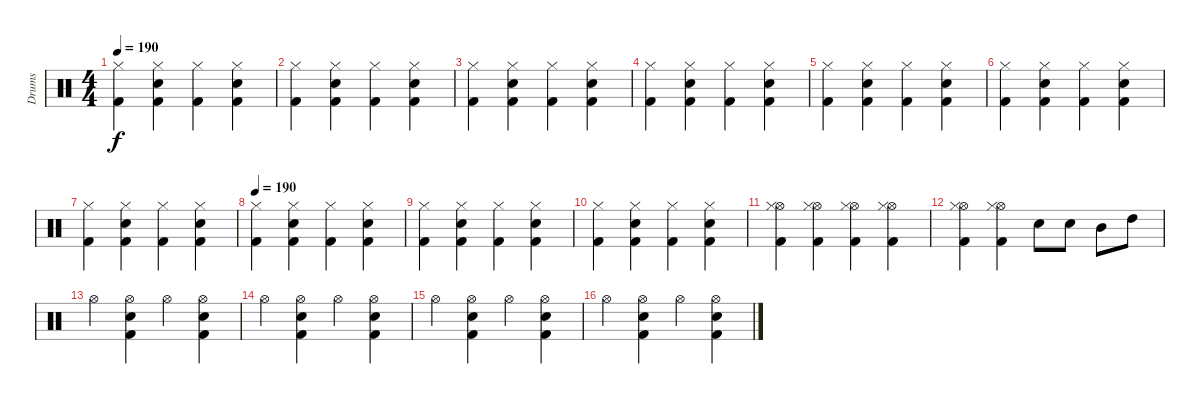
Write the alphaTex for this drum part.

\track ("Drums" "Drums") {instrument percussion}
\staff {score}
\articulation defaults
\ts (4 4)
\tempo 190
\clef neutral
\ks c
("Hi-Hat (closed)" "Kick (hit) 2").4{dy f} ("Hi-Hat (closed)" "Snare (hit) 2" "Kick (hit) 2").4 ("Hi-Hat (closed)" "Kick (hit) 2").4 ("Hi-Hat (closed)" "Snare (hit) 2" "Kick (hit) 2").4 |
("Hi-Hat (closed)" "Kick (hit) 2").4 ("Hi-Hat (closed)" "Snare (hit) 2" "Kick (hit) 2").4 ("Hi-Hat (closed)" "Kick (hit) 2").4 ("Hi-Hat (closed)" "Snare (hit) 2" "Kick (hit) 2").4 |
("Hi-Hat (closed)" "Kick (hit) 2").4 ("Hi-Hat (closed)" "Snare (hit) 2" "Kick (hit) 2").4 ("Hi-Hat (closed)" "Kick (hit) 2").4 ("Hi-Hat (closed)" "Snare (hit) 2" "Kick (hit) 2").4 |
("Hi-Hat (closed)" "Kick (hit) 2").4 ("Hi-Hat (closed)" "Snare (hit) 2" "Kick (hit) 2").4 ("Hi-Hat (closed)" "Kick (hit) 2").4 ("Hi-Hat (closed)" "Snare (hit) 2" "Kick (hit) 2").4 |
("Hi-Hat (closed)" "Kick (hit) 2").4 ("Hi-Hat (closed)" "Snare (hit) 2" "Kick (hit) 2").4 ("Hi-Hat (closed)" "Kick (hit) 2").4 ("Hi-Hat (closed)" "Snare (hit) 2" "Kick (hit) 2").4 |
("Hi-Hat (closed)" "Kick (hit) 2").4 ("Hi-Hat (closed)" "Snare (hit) 2" "Kick (hit) 2").4 ("Hi-Hat (closed)" "Kick (hit) 2").4 ("Hi-Hat (closed)" "Snare (hit) 2" "Kick (hit) 2").4 |
("Hi-Hat (closed)" "Kick (hit) 2").4 ("Hi-Hat (closed)" "Snare (hit) 2" "Kick (hit) 2").4 ("Hi-Hat (closed)" "Kick (hit) 2").4 ("Hi-Hat (closed)" "Snare (hit) 2" "Kick (hit) 2").4 |
\tempo 190
("Hi-Hat (closed)" "Kick (hit) 2").4 ("Hi-Hat (closed)" "Snare (hit) 2" "Kick (hit) 2").4 ("Hi-Hat (closed)" "Kick (hit) 2").4 ("Hi-Hat (closed)" "Snare (hit) 2" "Kick (hit) 2").4 |
("Hi-Hat (closed)" "Kick (hit) 2").4 ("Hi-Hat (closed)" "Snare (hit) 2" "Kick (hit) 2").4 ("Hi-Hat (closed)" "Kick (hit) 2").4 ("Hi-Hat (closed)" "Snare (hit) 2" "Kick (hit) 2").4 |
("Hi-Hat (closed)" "Kick (hit) 2").4 ("Hi-Hat (closed)" "Snare (hit) 2" "Kick (hit) 2").4 ("Hi-Hat (closed)" "Kick (hit) 2").4 ("Hi-Hat (closed)" "Snare (hit) 2" "Kick (hit) 2").4 |
("Hi-Hat (open)" "Hi-Hat (closed)" "Kick (hit) 2").4 ("Hi-Hat (open)" "Hi-Hat (closed)" "Kick (hit) 2").4 ("Hi-Hat (open)" "Hi-Hat (closed)" "Kick (hit) 2").4 ("Hi-Hat (open)" "Hi-Hat (closed)" "Kick (hit) 2").4 |
("Hi-Hat (open)" "Hi-Hat (closed)" "Kick (hit) 2").4 ("Hi-Hat (open)" "Hi-Hat (closed)" "Kick (hit) 2").4 "Snare (hit) 2".8 "Snare (hit) 2".8 "Mid Tom (hit)".8 "High Tom (hit)".8 |
"Hi-Hat (open)".4 ("Hi-Hat (open)" "Snare (hit) 2" "Kick (hit) 2").4 "Hi-Hat (open)".4 ("Hi-Hat (open)" "Snare (hit) 2" "Kick (hit) 2").4 |
"Hi-Hat (open)".4 ("Hi-Hat (open)" "Snare (hit) 2" "Kick (hit) 2").4 "Hi-Hat (open)".4 ("Hi-Hat (open)" "Snare (hit) 2" "Kick (hit) 2").4 |
"Hi-Hat (open)".4 ("Hi-Hat (open)" "Snare (hit) 2" "Kick (hit) 2").4 "Hi-Hat (open)".4 ("Hi-Hat (open)" "Snare (hit) 2" "Kick (hit) 2").4 |
"Hi-Hat (open)".4 ("Hi-Hat (open)" "Snare (hit) 2" "Kick (hit) 2").4 "Hi-Hat (open)".4 ("Hi-Hat (open)" "Snare (hit) 2" "Kick (hit) 2").4
